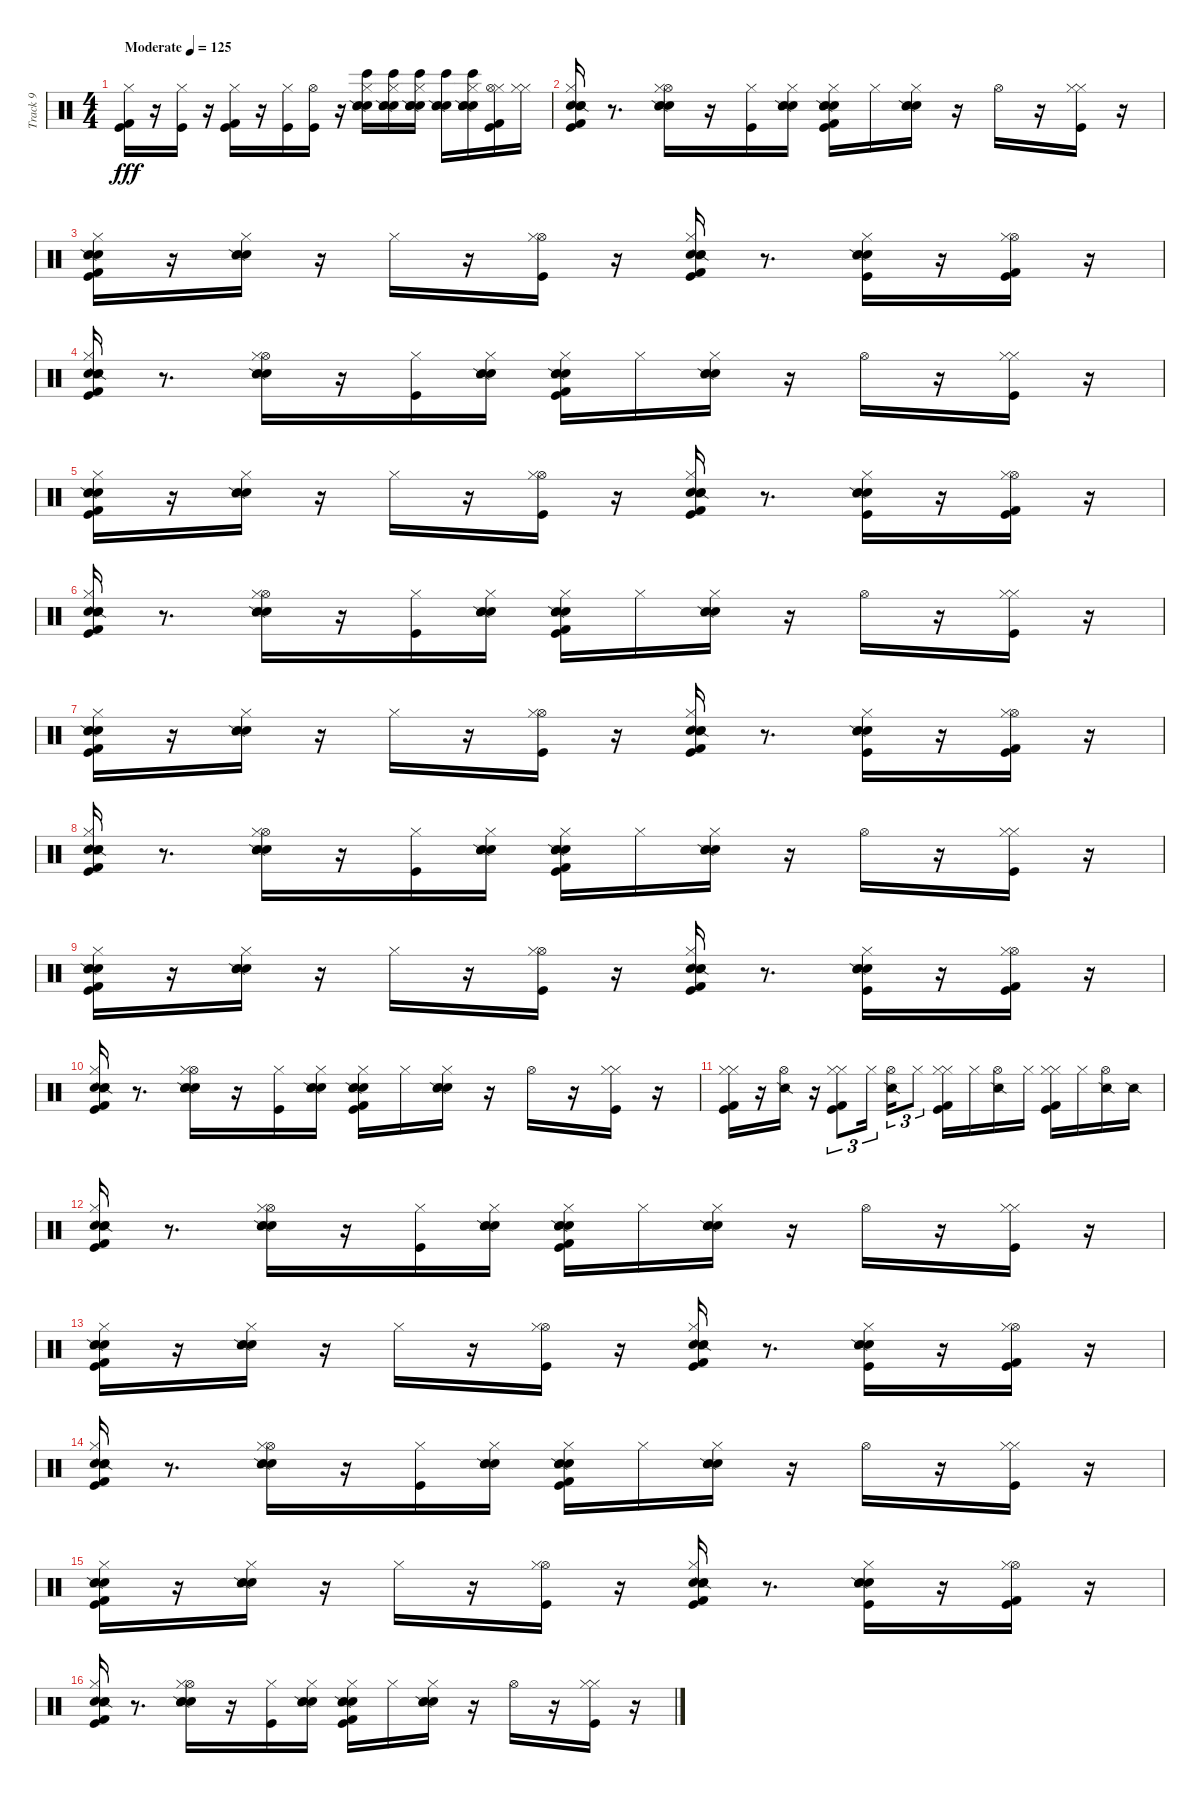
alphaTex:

\track ("Track 9" "Track 9") {instrument percussion}
\staff {score}
\articulation defaults
\ts (4 4)
\tempo (125 "Moderate")
\clef neutral
\ks c
("Kick (hit)" "Kick (hit) 2" "Hi-Hat (closed)").16{dy fff} r.16 ("Kick (hit)" "Hi-Hat (closed)").16 r.16 ("Kick (hit)" "Kick (hit) 2" "Hi-Hat (closed)").16 r.16 ("Kick (hit)" "Hi-Hat (closed)").16 ("Kick (hit)" "Hi-Hat (open)").16 r.16 ("Bongo High (hit)" "Metronome (bell)" "Snare (side stick) 2" "Electric Snare (hit)" "Hi-Hat (closed)").16 ("Bongo High (hit)" "Metronome (bell)" "Snare (side stick) 2" "Electric Snare (hit)" "Hi-Hat (closed)").16 ("Bongo High (hit)" "Metronome (bell)" "Snare (side stick) 2" "Electric Snare (hit)" "Hi-Hat (closed)").16 ("Bongo High (hit)" "Metronome (bell)" "Snare (side stick) 2" "Electric Snare (hit)").16 ("Bongo High (hit)" "Metronome (bell)" "Snare (side stick) 2" "Electric Snare (hit)" "Hi-Hat (closed)").16 ("Kick (hit)" "Hi-Hat (closed)" "Kick (hit) 2" "Hi-Hat (open)").16 ("Hi-Hat (closed)" "Hi-Hat (closed)").16 |
("Metronome (bell)" "Snare (side stick) 2" "Kick (hit)" "Kick (hit) 2" "Electric Snare (hit)" "Hi-Hat (closed)").16 r.8{d} ("Metronome (bell)" "Snare (side stick) 2" "Electric Snare (hit)" "Hi-Hat (open)" "Hi-Hat (closed)").16 r.16 ("Kick (hit)" "Hi-Hat (closed)").16 ("Metronome (bell)" "Snare (side stick) 2" "Electric Snare (hit)" "Hi-Hat (closed)").16 ("Metronome (bell)" "Snare (side stick) 2" "Kick (hit)" "Kick (hit) 2" "Electric Snare (hit)" "Hi-Hat (closed)").16 "Hi-Hat (closed)".16 ("Metronome (bell)" "Snare (side stick) 2" "Electric Snare (hit)" "Hi-Hat (closed)").16 r.16 "Hi-Hat (open)".16 r.16 ("Kick (hit)" "Hi-Hat (closed)" "Hi-Hat (closed)").16 r.16 |
("Electric Snare (hit)" "Metronome (bell)" "Snare (side stick) 2" "Kick (hit)" "Kick (hit) 2" "Hi-Hat (closed)").16 r.16 ("Metronome (bell)" "Snare (side stick) 2" "Electric Snare (hit)" "Hi-Hat (closed)").16 r.16 "Hi-Hat (closed)".16 r.16 ("Kick (hit)" "Hi-Hat (open)" "Hi-Hat (closed)").16 r.16 ("Metronome (bell)" "Snare (side stick) 2" "Electric Snare (hit)" "Kick (hit)" "Kick (hit) 2" "Hi-Hat (closed)").16 r.8{d} ("Metronome (bell)" "Snare (side stick) 2" "Electric Snare (hit)" "Kick (hit)" "Hi-Hat (closed)").16 r.16 ("Kick (hit)" "Kick (hit) 2" "Hi-Hat (open)" "Hi-Hat (closed)").16 r.16 |
("Metronome (bell)" "Snare (side stick) 2" "Kick (hit)" "Kick (hit) 2" "Electric Snare (hit)" "Hi-Hat (closed)").16 r.8{d} ("Metronome (bell)" "Snare (side stick) 2" "Electric Snare (hit)" "Hi-Hat (open)" "Hi-Hat (closed)").16 r.16 ("Kick (hit)" "Hi-Hat (closed)").16 ("Metronome (bell)" "Snare (side stick) 2" "Electric Snare (hit)" "Hi-Hat (closed)").16 ("Metronome (bell)" "Snare (side stick) 2" "Kick (hit)" "Kick (hit) 2" "Electric Snare (hit)" "Hi-Hat (closed)").16 "Hi-Hat (closed)".16 ("Metronome (bell)" "Snare (side stick) 2" "Electric Snare (hit)" "Hi-Hat (closed)").16 r.16 "Hi-Hat (open)".16 r.16 ("Kick (hit)" "Hi-Hat (closed)" "Hi-Hat (closed)").16 r.16 |
("Electric Snare (hit)" "Metronome (bell)" "Snare (side stick) 2" "Kick (hit)" "Kick (hit) 2" "Hi-Hat (closed)").16 r.16 ("Metronome (bell)" "Snare (side stick) 2" "Electric Snare (hit)" "Hi-Hat (closed)").16 r.16 "Hi-Hat (closed)".16 r.16 ("Kick (hit)" "Hi-Hat (open)" "Hi-Hat (closed)").16 r.16 ("Metronome (bell)" "Snare (side stick) 2" "Electric Snare (hit)" "Kick (hit)" "Kick (hit) 2" "Hi-Hat (closed)").16 r.8{d} ("Metronome (bell)" "Snare (side stick) 2" "Electric Snare (hit)" "Kick (hit)" "Hi-Hat (closed)").16 r.16 ("Kick (hit)" "Kick (hit) 2" "Hi-Hat (open)" "Hi-Hat (closed)").16 r.16 |
("Metronome (bell)" "Snare (side stick) 2" "Kick (hit)" "Kick (hit) 2" "Electric Snare (hit)" "Hi-Hat (closed)").16 r.8{d} ("Metronome (bell)" "Snare (side stick) 2" "Electric Snare (hit)" "Hi-Hat (open)" "Hi-Hat (closed)").16 r.16 ("Kick (hit)" "Hi-Hat (closed)").16 ("Metronome (bell)" "Snare (side stick) 2" "Electric Snare (hit)" "Hi-Hat (closed)").16 ("Metronome (bell)" "Snare (side stick) 2" "Kick (hit)" "Kick (hit) 2" "Electric Snare (hit)" "Hi-Hat (closed)").16 "Hi-Hat (closed)".16 ("Metronome (bell)" "Snare (side stick) 2" "Electric Snare (hit)" "Hi-Hat (closed)").16 r.16 "Hi-Hat (open)".16 r.16 ("Kick (hit)" "Hi-Hat (closed)" "Hi-Hat (closed)").16 r.16 |
("Electric Snare (hit)" "Metronome (bell)" "Snare (side stick) 2" "Kick (hit)" "Kick (hit) 2" "Hi-Hat (closed)").16 r.16 ("Metronome (bell)" "Snare (side stick) 2" "Electric Snare (hit)" "Hi-Hat (closed)").16 r.16 "Hi-Hat (closed)".16 r.16 ("Kick (hit)" "Hi-Hat (open)" "Hi-Hat (closed)").16 r.16 ("Metronome (bell)" "Snare (side stick) 2" "Electric Snare (hit)" "Kick (hit)" "Kick (hit) 2" "Hi-Hat (closed)").16 r.8{d} ("Metronome (bell)" "Snare (side stick) 2" "Electric Snare (hit)" "Kick (hit)" "Hi-Hat (closed)").16 r.16 ("Kick (hit)" "Kick (hit) 2" "Hi-Hat (open)" "Hi-Hat (closed)").16 r.16 |
("Metronome (bell)" "Snare (side stick) 2" "Kick (hit)" "Kick (hit) 2" "Electric Snare (hit)" "Hi-Hat (closed)").16 r.8{d} ("Metronome (bell)" "Snare (side stick) 2" "Electric Snare (hit)" "Hi-Hat (open)" "Hi-Hat (closed)").16 r.16 ("Kick (hit)" "Hi-Hat (closed)").16 ("Metronome (bell)" "Snare (side stick) 2" "Electric Snare (hit)" "Hi-Hat (closed)").16 ("Metronome (bell)" "Snare (side stick) 2" "Kick (hit)" "Kick (hit) 2" "Electric Snare (hit)" "Hi-Hat (closed)").16 "Hi-Hat (closed)".16 ("Metronome (bell)" "Snare (side stick) 2" "Electric Snare (hit)" "Hi-Hat (closed)").16 r.16 "Hi-Hat (open)".16 r.16 ("Kick (hit)" "Hi-Hat (closed)" "Hi-Hat (closed)").16 r.16 |
("Electric Snare (hit)" "Metronome (bell)" "Snare (side stick) 2" "Kick (hit)" "Kick (hit) 2" "Hi-Hat (closed)").16 r.16 ("Metronome (bell)" "Snare (side stick) 2" "Electric Snare (hit)" "Hi-Hat (closed)").16 r.16 "Hi-Hat (closed)".16 r.16 ("Kick (hit)" "Hi-Hat (open)" "Hi-Hat (closed)").16 r.16 ("Metronome (bell)" "Snare (side stick) 2" "Electric Snare (hit)" "Kick (hit)" "Kick (hit) 2" "Hi-Hat (closed)").16 r.8{d} ("Metronome (bell)" "Snare (side stick) 2" "Electric Snare (hit)" "Kick (hit)" "Hi-Hat (closed)").16 r.16 ("Kick (hit)" "Kick (hit) 2" "Hi-Hat (open)" "Hi-Hat (closed)").16 r.16 |
("Metronome (bell)" "Snare (side stick) 2" "Kick (hit)" "Kick (hit) 2" "Electric Snare (hit)" "Hi-Hat (closed)").16 r.8{d} ("Metronome (bell)" "Snare (side stick) 2" "Electric Snare (hit)" "Hi-Hat (open)" "Hi-Hat (closed)").16 r.16 ("Kick (hit)" "Hi-Hat (closed)").16 ("Metronome (bell)" "Snare (side stick) 2" "Electric Snare (hit)" "Hi-Hat (closed)").16 ("Metronome (bell)" "Snare (side stick) 2" "Kick (hit)" "Kick (hit) 2" "Electric Snare (hit)" "Hi-Hat (closed)").16 "Hi-Hat (closed)".16 ("Metronome (bell)" "Snare (side stick) 2" "Electric Snare (hit)" "Hi-Hat (closed)").16 r.16 "Hi-Hat (open)".16 r.16 ("Kick (hit)" "Hi-Hat (closed)" "Hi-Hat (closed)").16 r.16 |
("Kick (hit)" "Kick (hit) 2" "Hi-Hat (closed)" "Hi-Hat (closed)").16 r.16 ("Snare (side stick) 2" "Hi-Hat (open)").16 r.16 ("Kick (hit)" "Kick (hit) 2" "Hi-Hat (closed)" "Hi-Hat (closed)").8{tu (3 2)} "Hi-Hat (closed)".16{tu (3 2) beam splitsecondary} ("Snare (side stick) 2" "Hi-Hat (open)").16{tu (3 2)} "Hi-Hat (closed)".8{tu (3 2)} ("Kick (hit)" "Kick (hit) 2" "Hi-Hat (closed)" "Hi-Hat (closed)").16 "Hi-Hat (closed)".16 ("Snare (side stick) 2" "Hi-Hat (open)").16 "Hi-Hat (closed)".16 ("Kick (hit)" "Kick (hit) 2" "Hi-Hat (closed)" "Hi-Hat (closed)").16 "Hi-Hat (closed)".16 ("Snare (side stick) 2" "Hi-Hat (open)").16 "Snare (side stick) 2".16 |
("Metronome (bell)" "Snare (side stick) 2" "Kick (hit)" "Kick (hit) 2" "Electric Snare (hit)" "Hi-Hat (closed)").16 r.8{d} ("Metronome (bell)" "Snare (side stick) 2" "Electric Snare (hit)" "Hi-Hat (open)" "Hi-Hat (closed)").16 r.16 ("Kick (hit)" "Hi-Hat (closed)").16 ("Metronome (bell)" "Snare (side stick) 2" "Electric Snare (hit)" "Hi-Hat (closed)").16 ("Metronome (bell)" "Snare (side stick) 2" "Kick (hit)" "Kick (hit) 2" "Electric Snare (hit)" "Hi-Hat (closed)").16 "Hi-Hat (closed)".16 ("Metronome (bell)" "Snare (side stick) 2" "Electric Snare (hit)" "Hi-Hat (closed)").16 r.16 "Hi-Hat (open)".16 r.16 ("Kick (hit)" "Hi-Hat (closed)" "Hi-Hat (closed)").16 r.16 |
("Electric Snare (hit)" "Metronome (bell)" "Snare (side stick) 2" "Kick (hit)" "Kick (hit) 2" "Hi-Hat (closed)").16 r.16 ("Metronome (bell)" "Snare (side stick) 2" "Electric Snare (hit)" "Hi-Hat (closed)").16 r.16 "Hi-Hat (closed)".16 r.16 ("Kick (hit)" "Hi-Hat (open)" "Hi-Hat (closed)").16 r.16 ("Metronome (bell)" "Snare (side stick) 2" "Electric Snare (hit)" "Kick (hit)" "Kick (hit) 2" "Hi-Hat (closed)").16 r.8{d} ("Metronome (bell)" "Snare (side stick) 2" "Electric Snare (hit)" "Kick (hit)" "Hi-Hat (closed)").16 r.16 ("Kick (hit)" "Kick (hit) 2" "Hi-Hat (open)" "Hi-Hat (closed)").16 r.16 |
("Metronome (bell)" "Snare (side stick) 2" "Kick (hit)" "Kick (hit) 2" "Electric Snare (hit)" "Hi-Hat (closed)").16 r.8{d} ("Metronome (bell)" "Snare (side stick) 2" "Electric Snare (hit)" "Hi-Hat (open)" "Hi-Hat (closed)").16 r.16 ("Kick (hit)" "Hi-Hat (closed)").16 ("Metronome (bell)" "Snare (side stick) 2" "Electric Snare (hit)" "Hi-Hat (closed)").16 ("Metronome (bell)" "Snare (side stick) 2" "Kick (hit)" "Kick (hit) 2" "Electric Snare (hit)" "Hi-Hat (closed)").16 "Hi-Hat (closed)".16 ("Metronome (bell)" "Snare (side stick) 2" "Electric Snare (hit)" "Hi-Hat (closed)").16 r.16 "Hi-Hat (open)".16 r.16 ("Kick (hit)" "Hi-Hat (closed)" "Hi-Hat (closed)").16 r.16 |
("Electric Snare (hit)" "Metronome (bell)" "Snare (side stick) 2" "Kick (hit)" "Kick (hit) 2" "Hi-Hat (closed)").16 r.16 ("Metronome (bell)" "Snare (side stick) 2" "Electric Snare (hit)" "Hi-Hat (closed)").16 r.16 "Hi-Hat (closed)".16 r.16 ("Kick (hit)" "Hi-Hat (open)" "Hi-Hat (closed)").16 r.16 ("Metronome (bell)" "Snare (side stick) 2" "Electric Snare (hit)" "Kick (hit)" "Kick (hit) 2" "Hi-Hat (closed)").16 r.8{d} ("Metronome (bell)" "Snare (side stick) 2" "Electric Snare (hit)" "Kick (hit)" "Hi-Hat (closed)").16 r.16 ("Kick (hit)" "Kick (hit) 2" "Hi-Hat (open)" "Hi-Hat (closed)").16 r.16 |
("Metronome (bell)" "Snare (side stick) 2" "Kick (hit)" "Kick (hit) 2" "Electric Snare (hit)" "Hi-Hat (closed)").16 r.8{d} ("Metronome (bell)" "Snare (side stick) 2" "Electric Snare (hit)" "Hi-Hat (open)" "Hi-Hat (closed)").16 r.16 ("Kick (hit)" "Hi-Hat (closed)").16 ("Metronome (bell)" "Snare (side stick) 2" "Electric Snare (hit)" "Hi-Hat (closed)").16 ("Metronome (bell)" "Snare (side stick) 2" "Kick (hit)" "Kick (hit) 2" "Electric Snare (hit)" "Hi-Hat (closed)").16 "Hi-Hat (closed)".16 ("Metronome (bell)" "Snare (side stick) 2" "Electric Snare (hit)" "Hi-Hat (closed)").16 r.16 "Hi-Hat (open)".16 r.16 ("Kick (hit)" "Hi-Hat (closed)" "Hi-Hat (closed)").16 r.16
